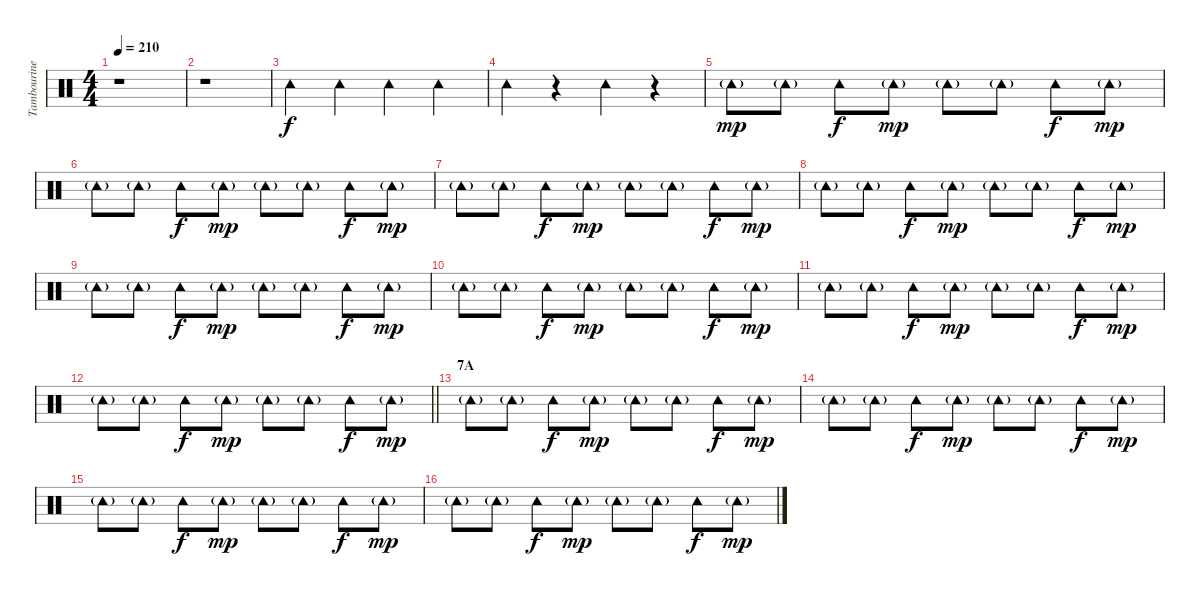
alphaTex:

\track ("Tambourine" "Tambourine") {instrument percussion}
\staff {score}
\articulation defaults
\ts (4 4)
\tempo 210
\clef neutral
\ks c
r.1{dy mp} |
r.1 |
"Tambourine (hit)".4{dy f} "Tambourine (hit)".4 "Tambourine (hit)".4 "Tambourine (hit)".4 |
"Tambourine (hit)".4 r.4 "Tambourine (hit)".4 r.4 |
"Tambourine (hit)"{g}.8{dy mp} "Tambourine (hit)"{g}.8 "Tambourine (hit)".8{dy f} "Tambourine (hit)"{g}.8{dy mp} "Tambourine (hit)"{g}.8 "Tambourine (hit)"{g}.8 "Tambourine (hit)".8{dy f} "Tambourine (hit)"{g}.8{dy mp} |
"Tambourine (hit)"{g}.8 "Tambourine (hit)"{g}.8 "Tambourine (hit)".8{dy f} "Tambourine (hit)"{g}.8{dy mp} "Tambourine (hit)"{g}.8 "Tambourine (hit)"{g}.8 "Tambourine (hit)".8{dy f} "Tambourine (hit)"{g}.8{dy mp} |
"Tambourine (hit)"{g}.8 "Tambourine (hit)"{g}.8 "Tambourine (hit)".8{dy f} "Tambourine (hit)"{g}.8{dy mp} "Tambourine (hit)"{g}.8 "Tambourine (hit)"{g}.8 "Tambourine (hit)".8{dy f} "Tambourine (hit)"{g}.8{dy mp} |
"Tambourine (hit)"{g}.8 "Tambourine (hit)"{g}.8 "Tambourine (hit)".8{dy f} "Tambourine (hit)"{g}.8{dy mp} "Tambourine (hit)"{g}.8 "Tambourine (hit)"{g}.8 "Tambourine (hit)".8{dy f} "Tambourine (hit)"{g}.8{dy mp} |
"Tambourine (hit)"{g}.8 "Tambourine (hit)"{g}.8 "Tambourine (hit)".8{dy f} "Tambourine (hit)"{g}.8{dy mp} "Tambourine (hit)"{g}.8 "Tambourine (hit)"{g}.8 "Tambourine (hit)".8{dy f} "Tambourine (hit)"{g}.8{dy mp} |
"Tambourine (hit)"{g}.8 "Tambourine (hit)"{g}.8 "Tambourine (hit)".8{dy f} "Tambourine (hit)"{g}.8{dy mp} "Tambourine (hit)"{g}.8 "Tambourine (hit)"{g}.8 "Tambourine (hit)".8{dy f} "Tambourine (hit)"{g}.8{dy mp} |
"Tambourine (hit)"{g}.8 "Tambourine (hit)"{g}.8 "Tambourine (hit)".8{dy f} "Tambourine (hit)"{g}.8{dy mp} "Tambourine (hit)"{g}.8 "Tambourine (hit)"{g}.8 "Tambourine (hit)".8{dy f} "Tambourine (hit)"{g}.8{dy mp} |
\barLineRight lightlight "Tambourine (hit)"{g}.8 "Tambourine (hit)"{g}.8 "Tambourine (hit)".8{dy f} "Tambourine (hit)"{g}.8{dy mp} "Tambourine (hit)"{g}.8 "Tambourine (hit)"{g}.8 "Tambourine (hit)".8{dy f} "Tambourine (hit)"{g}.8{dy mp}
|
\section ("" "7A")
"Tambourine (hit)"{g}.8 "Tambourine (hit)"{g}.8 "Tambourine (hit)".8{dy f} "Tambourine (hit)"{g}.8{dy mp} "Tambourine (hit)"{g}.8 "Tambourine (hit)"{g}.8 "Tambourine (hit)".8{dy f} "Tambourine (hit)"{g}.8{dy mp} |
"Tambourine (hit)"{g}.8 "Tambourine (hit)"{g}.8 "Tambourine (hit)".8{dy f} "Tambourine (hit)"{g}.8{dy mp} "Tambourine (hit)"{g}.8 "Tambourine (hit)"{g}.8 "Tambourine (hit)".8{dy f} "Tambourine (hit)"{g}.8{dy mp} |
"Tambourine (hit)"{g}.8 "Tambourine (hit)"{g}.8 "Tambourine (hit)".8{dy f} "Tambourine (hit)"{g}.8{dy mp} "Tambourine (hit)"{g}.8 "Tambourine (hit)"{g}.8 "Tambourine (hit)".8{dy f} "Tambourine (hit)"{g}.8{dy mp} |
"Tambourine (hit)"{g}.8 "Tambourine (hit)"{g}.8 "Tambourine (hit)".8{dy f} "Tambourine (hit)"{g}.8{dy mp} "Tambourine (hit)"{g}.8 "Tambourine (hit)"{g}.8 "Tambourine (hit)".8{dy f} "Tambourine (hit)"{g}.8{dy mp}
